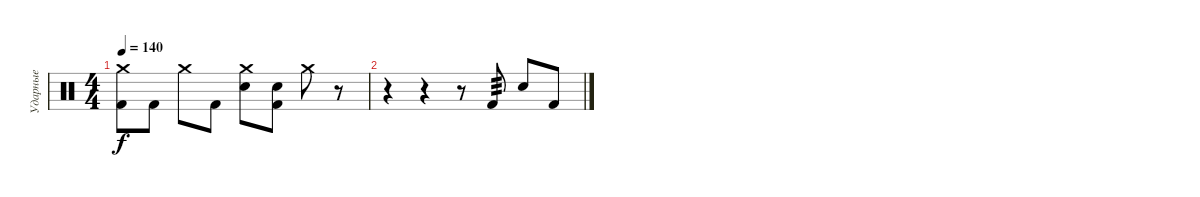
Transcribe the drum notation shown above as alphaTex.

\track ("Ударные" "Ударные") {instrument percussion}
\staff {score}
\articulation defaults
\ts (4 4)
\tempo 140
\clef neutral
\ks c
("Crash medium (hit)" "Kick (hit) 2").8{dy f} "Kick (hit) 2".8 "Crash medium (hit)".8 "Kick (hit) 2".8 ("Crash medium (hit)" "Electric Snare (hit)").8 ("Snare (hit)" "Kick (hit) 2").8 "Crash medium (hit)".8 r.8 |
r.4 r.4 r.8 "Kick (hit) 2".8{tp 3} "Electric Snare (hit)".8 "Kick (hit) 2".8
